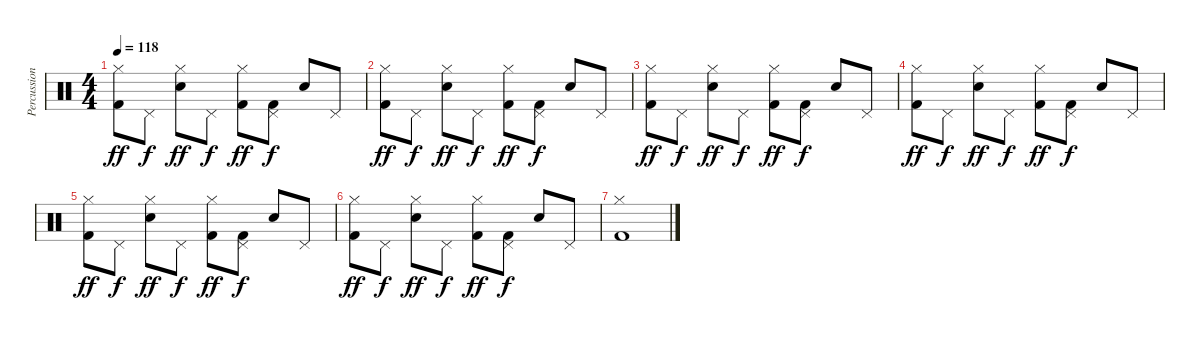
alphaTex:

\track ("Percussions" "Percussion") {instrument percussion}
\staff {score}
\articulation defaults
\ts (4 4)
\tempo 118
\clef neutral
\ks c
("Kick (hit) 2" "Hi-Hat (closed)").8{dy ff} "Pedal Hi-Hat (hit)".8{dy f} ("Electric Snare (hit)" "Hi-Hat (closed)").8{dy ff} "Pedal Hi-Hat (hit)".8{dy f} ("Kick (hit) 2" "Hi-Hat (closed)").8{dy ff} ("Kick (hit) 2" "Pedal Hi-Hat (hit)").8{dy f} "Electric Snare (hit)".8 "Pedal Hi-Hat (hit)".8 |
("Kick (hit) 2" "Hi-Hat (closed)").8{dy ff} "Pedal Hi-Hat (hit)".8{dy f} ("Electric Snare (hit)" "Hi-Hat (closed)").8{dy ff} "Pedal Hi-Hat (hit)".8{dy f} ("Kick (hit) 2" "Hi-Hat (closed)").8{dy ff} ("Kick (hit) 2" "Pedal Hi-Hat (hit)").8{dy f} "Electric Snare (hit)".8 "Pedal Hi-Hat (hit)".8 |
("Kick (hit) 2" "Hi-Hat (closed)").8{dy ff} "Pedal Hi-Hat (hit)".8{dy f} ("Electric Snare (hit)" "Hi-Hat (closed)").8{dy ff} "Pedal Hi-Hat (hit)".8{dy f} ("Kick (hit) 2" "Hi-Hat (closed)").8{dy ff} ("Kick (hit) 2" "Pedal Hi-Hat (hit)").8{dy f} "Electric Snare (hit)".8 "Pedal Hi-Hat (hit)".8 |
("Kick (hit) 2" "Hi-Hat (closed)").8{dy ff} "Pedal Hi-Hat (hit)".8{dy f} ("Electric Snare (hit)" "Hi-Hat (closed)").8{dy ff} "Pedal Hi-Hat (hit)".8{dy f} ("Kick (hit) 2" "Hi-Hat (closed)").8{dy ff} ("Kick (hit) 2" "Pedal Hi-Hat (hit)").8{dy f} "Electric Snare (hit)".8 "Pedal Hi-Hat (hit)".8 |
("Kick (hit) 2" "Hi-Hat (closed)").8{dy ff} "Pedal Hi-Hat (hit)".8{dy f} ("Electric Snare (hit)" "Hi-Hat (closed)").8{dy ff} "Pedal Hi-Hat (hit)".8{dy f} ("Kick (hit) 2" "Hi-Hat (closed)").8{dy ff} ("Kick (hit) 2" "Pedal Hi-Hat (hit)").8{dy f} "Electric Snare (hit)".8 "Pedal Hi-Hat (hit)".8 |
("Kick (hit) 2" "Hi-Hat (closed)").8{dy ff} "Pedal Hi-Hat (hit)".8{dy f} ("Electric Snare (hit)" "Hi-Hat (closed)").8{dy ff} "Pedal Hi-Hat (hit)".8{dy f} ("Kick (hit) 2" "Hi-Hat (closed)").8{dy ff} ("Kick (hit) 2" "Pedal Hi-Hat (hit)").8{dy f} "Electric Snare (hit)".8 "Pedal Hi-Hat (hit)".8 |
("Kick (hit) 2" "Hi-Hat (closed)").1
